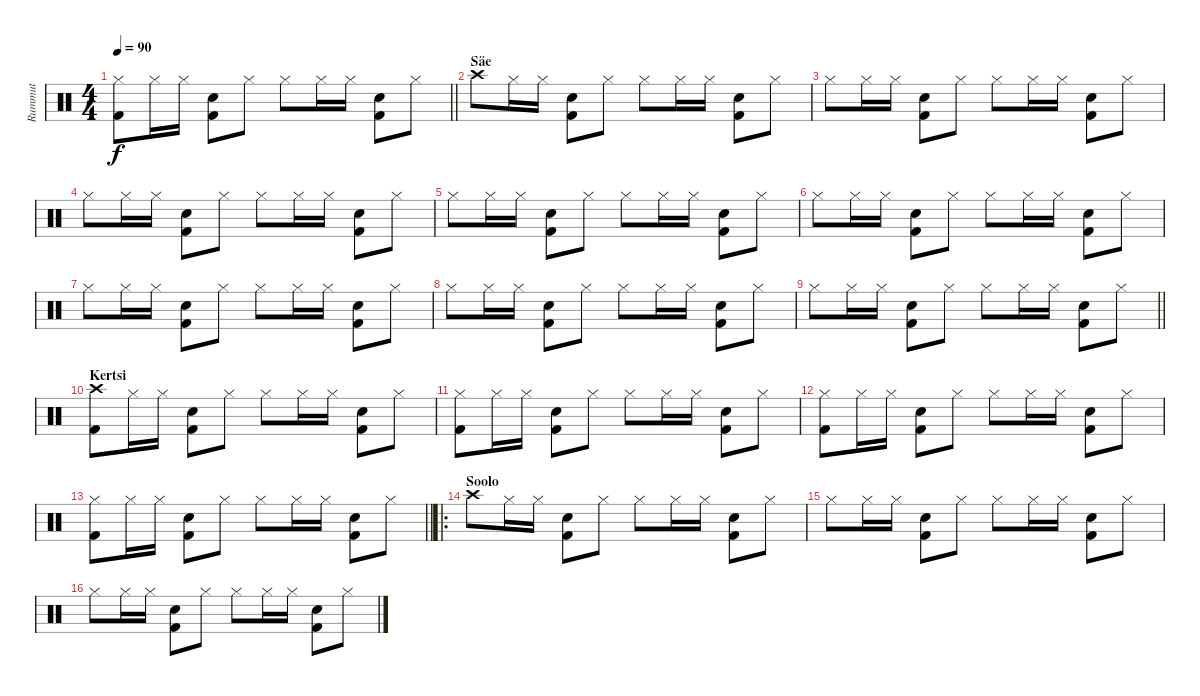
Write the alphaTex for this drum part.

\track ("Rummut" "Rummut") {instrument percussion}
\staff {score}
\articulation defaults
\ts (4 4)
\tempo 90
\clef neutral
\barLineRight lightlight
\ks c
("Hi-Hat (closed)" "Kick (hit) 2").8{dy f} "Hi-Hat (closed)".16 "Hi-Hat (closed)".16 ("Snare (hit) 2" "Kick (hit) 2").8 "Hi-Hat (closed)".8 "Hi-Hat (closed)".8 "Hi-Hat (closed)".16 "Hi-Hat (closed)".16 ("Snare (hit) 2" "Kick (hit) 2").8 "Hi-Hat (closed)".8 |
\section ("" "Säe")
"Crash high (hit)".8 "Hi-Hat (closed)".16 "Hi-Hat (closed)".16 ("Snare (hit) 2" "Kick (hit) 2").8 "Hi-Hat (closed)".8 "Hi-Hat (closed)".8 "Hi-Hat (closed)".16 "Hi-Hat (closed)".16 ("Snare (hit) 2" "Kick (hit) 2").8 "Hi-Hat (closed)".8 |
"Hi-Hat (closed)".8 "Hi-Hat (closed)".16 "Hi-Hat (closed)".16 ("Snare (hit) 2" "Kick (hit) 2").8 "Hi-Hat (closed)".8 "Hi-Hat (closed)".8 "Hi-Hat (closed)".16 "Hi-Hat (closed)".16 ("Snare (hit) 2" "Kick (hit) 2").8 "Hi-Hat (closed)".8 |
"Hi-Hat (closed)".8 "Hi-Hat (closed)".16 "Hi-Hat (closed)".16 ("Snare (hit) 2" "Kick (hit) 2").8 "Hi-Hat (closed)".8 "Hi-Hat (closed)".8 "Hi-Hat (closed)".16 "Hi-Hat (closed)".16 ("Snare (hit) 2" "Kick (hit) 2").8 "Hi-Hat (closed)".8 |
"Hi-Hat (closed)".8 "Hi-Hat (closed)".16 "Hi-Hat (closed)".16 ("Snare (hit) 2" "Kick (hit) 2").8 "Hi-Hat (closed)".8 "Hi-Hat (closed)".8 "Hi-Hat (closed)".16 "Hi-Hat (closed)".16 ("Snare (hit) 2" "Kick (hit) 2").8 "Hi-Hat (closed)".8 |
"Hi-Hat (closed)".8 "Hi-Hat (closed)".16 "Hi-Hat (closed)".16 ("Snare (hit) 2" "Kick (hit) 2").8 "Hi-Hat (closed)".8 "Hi-Hat (closed)".8 "Hi-Hat (closed)".16 "Hi-Hat (closed)".16 ("Snare (hit) 2" "Kick (hit) 2").8 "Hi-Hat (closed)".8 |
"Hi-Hat (closed)".8 "Hi-Hat (closed)".16 "Hi-Hat (closed)".16 ("Snare (hit) 2" "Kick (hit) 2").8 "Hi-Hat (closed)".8 "Hi-Hat (closed)".8 "Hi-Hat (closed)".16 "Hi-Hat (closed)".16 ("Snare (hit) 2" "Kick (hit) 2").8 "Hi-Hat (closed)".8 |
"Hi-Hat (closed)".8 "Hi-Hat (closed)".16 "Hi-Hat (closed)".16 ("Snare (hit) 2" "Kick (hit) 2").8 "Hi-Hat (closed)".8 "Hi-Hat (closed)".8 "Hi-Hat (closed)".16 "Hi-Hat (closed)".16 ("Snare (hit) 2" "Kick (hit) 2").8 "Hi-Hat (closed)".8 |
\barLineRight lightlight "Hi-Hat (closed)".8 "Hi-Hat (closed)".16 "Hi-Hat (closed)".16
("Snare (hit) 2" "Kick (hit) 2").8 "Hi-Hat (closed)".8 "Hi-Hat (closed)".8 "Hi-Hat (closed)".16 "Hi-Hat (closed)".16 ("Snare (hit) 2" "Kick (hit) 2").8 "Hi-Hat (closed)".8 |
\section ("" "Kertsi")
("Crash high (hit)" "Kick (hit) 2").8 "Hi-Hat (closed)".16 "Hi-Hat (closed)".16 ("Snare (hit) 2" "Kick (hit) 2").8 "Hi-Hat (closed)".8 "Hi-Hat (closed)".8 "Hi-Hat (closed)".16 "Hi-Hat (closed)".16 ("Snare (hit) 2" "Kick (hit) 2").8 "Hi-Hat (closed)".8 |
("Hi-Hat (closed)" "Kick (hit) 2").8 "Hi-Hat (closed)".16 "Hi-Hat (closed)".16 ("Snare (hit) 2" "Kick (hit) 2").8 "Hi-Hat (closed)".8 "Hi-Hat (closed)".8 "Hi-Hat (closed)".16 "Hi-Hat (closed)".16 ("Snare (hit) 2" "Kick (hit) 2").8 "Hi-Hat (closed)".8 |
("Hi-Hat (closed)" "Kick (hit) 2").8 "Hi-Hat (closed)".16 "Hi-Hat (closed)".16 ("Snare (hit) 2" "Kick (hit) 2").8 "Hi-Hat (closed)".8 "Hi-Hat (closed)".8 "Hi-Hat (closed)".16 "Hi-Hat (closed)".16 ("Snare (hit) 2" "Kick (hit) 2").8 "Hi-Hat (closed)".8 |
\barLineRight lightlight
("Hi-Hat (closed)" "Kick (hit) 2").8 "Hi-Hat (closed)".16 "Hi-Hat (closed)".16 ("Snare (hit) 2" "Kick (hit) 2").8 "Hi-Hat (closed)".8 "Hi-Hat (closed)".8 "Hi-Hat (closed)".16 "Hi-Hat (closed)".16 ("Snare (hit) 2" "Kick (hit) 2").8 "Hi-Hat (closed)".8 |
\ro
\section ("" "Soolo")
"Crash high (hit)".8 "Hi-Hat (closed)".16 "Hi-Hat (closed)".16 ("Snare (hit) 2" "Kick (hit) 2").8 "Hi-Hat (closed)".8 "Hi-Hat (closed)".8 "Hi-Hat (closed)".16 "Hi-Hat (closed)".16 ("Snare (hit) 2" "Kick (hit) 2").8 "Hi-Hat (closed)".8 |
"Hi-Hat (closed)".8 "Hi-Hat (closed)".16 "Hi-Hat (closed)".16 ("Snare (hit) 2" "Kick (hit) 2").8 "Hi-Hat (closed)".8 "Hi-Hat (closed)".8 "Hi-Hat (closed)".16 "Hi-Hat (closed)".16 ("Snare (hit) 2" "Kick (hit) 2").8 "Hi-Hat (closed)".8 |
"Hi-Hat (closed)".8 "Hi-Hat (closed)".16 "Hi-Hat (closed)".16 ("Snare (hit) 2" "Kick (hit) 2").8 "Hi-Hat (closed)".8 "Hi-Hat (closed)".8 "Hi-Hat (closed)".16 "Hi-Hat (closed)".16 ("Snare (hit) 2" "Kick (hit) 2").8 "Hi-Hat (closed)".8
